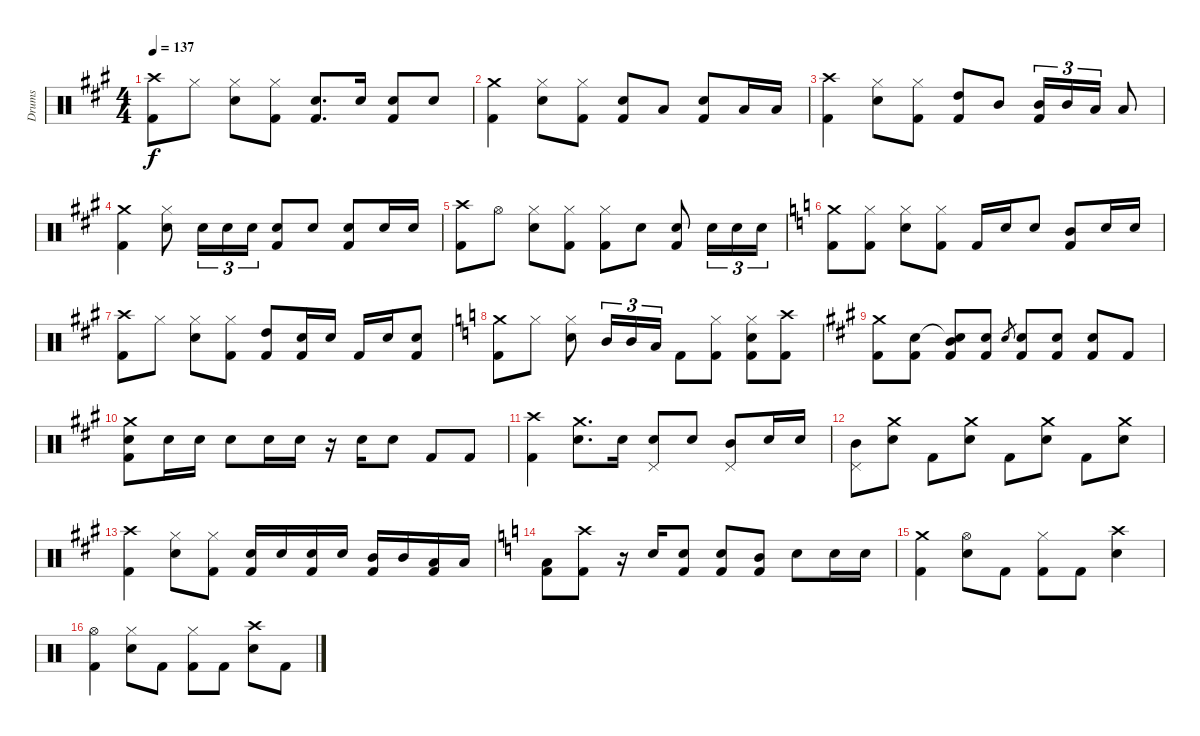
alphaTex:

\track ("Drums" "Drums") {instrument percussion}
\staff {score}
\articulation defaults
\ts (4 4)
\tempo 137
\clef neutral
\ks a
("Crash high (hit)" "Kick (hit) 2").8{dy f} "Hi-Hat (closed)".8 ("Hi-Hat (closed)" "Snare (hit) 2").8 ("Hi-Hat (closed)" "Kick (hit) 2").8 ("Snare (hit) 2" "Kick (hit) 2").8{d} "Snare (hit) 2".16 ("Snare (hit) 2" "Kick (hit) 2").8 "Snare (hit) 2".8 |
("Crash medium (hit)" "Kick (hit) 2").4 ("Hi-Hat (closed)" "Snare (hit) 2").8 ("Hi-Hat (closed)" "Kick (hit) 2").8 ("Snare (hit) 2" "Kick (hit) 2").8 "Low Tom (hit)".8 ("Snare (hit) 2" "Kick (hit) 2").8 "Low Tom (hit)".16 "Low Tom (hit)".16 |
("Crash high (hit)" "Kick (hit) 2").4 ("Hi-Hat (closed)" "Snare (hit) 2").8 ("Hi-Hat (closed)" "Kick (hit) 2").8 ("High Tom (hit)" "Kick (hit) 2").8 "Mid Tom (hit)".8 ("Mid Tom (hit)" "Kick (hit) 2").16{tu (3 2)} "Mid Tom (hit)".16{tu (3 2)} "Low Tom (hit)".16{tu (3 2)} "Low Tom (hit)".8 |
("Crash medium (hit)" "Kick (hit) 2").4 ("Hi-Hat (closed)" "Snare (hit) 2").8 "Snare (hit) 2".16{tu (3 2)} "Snare (hit) 2".16{tu (3 2)} "Snare (hit) 2".16{tu (3 2)} ("Snare (hit) 2" "Kick (hit) 2").8 "Snare (hit) 2".8 ("Snare (hit) 2" "Kick (hit) 2").8 "Snare (hit) 2".16 "Snare (hit) 2".16 |
("Crash high (hit)" "Kick (hit) 2").8 "Hi-Hat (open)".8 ("Hi-Hat (closed)" "Snare (hit) 2").8 ("Hi-Hat (closed)" "Kick (hit) 2").8 ("Hi-Hat (closed)" "Kick (hit) 2").8 "Snare (hit) 2".8 ("Snare (hit) 2" "Kick (hit) 2").8 "Snare (hit) 2".16{tu (3 2)} "Snare (hit) 2".16{tu (3 2)} "Snare (hit) 2".16{tu (3 2)} |
\ks c
("Crash medium (hit)" "Kick (hit) 2").8 ("Hi-Hat (closed)" "Kick (hit) 2").8 ("Hi-Hat (closed)" "Snare (hit) 2").8 ("Hi-Hat (closed)" "Kick (hit) 2").8 "Kick (hit) 2".16 "Snare (hit) 2".16 "Snare (hit) 2".8 ("Mid Tom (hit)" "Kick (hit) 2").8 "Snare (hit) 2".16 "Snare (hit) 2".16 |
\ks a
("Crash high (hit)" "Kick (hit) 2").8 "Hi-Hat (closed)".8 ("Hi-Hat (closed)" "Snare (hit) 2").8 ("Hi-Hat (closed)" "Kick (hit) 2").8 ("High Tom (hit)" "Kick (hit) 2").8 ("Snare (hit) 2" "Kick (hit) 2").16 "Snare (hit) 2".16 "Kick (hit) 2".16 "Snare (hit) 2".16 ("Snare (hit) 2" "Kick (hit) 2").8 |
\ks c
("Crash medium (hit)" "Kick (hit) 2").8 "Hi-Hat (closed)".8 ("Hi-Hat (closed)" "Snare (hit) 2").8 "Mid Tom (hit)".16{tu (3 2)} "Mid Tom (hit)".16{tu (3 2)} "Low Tom (hit)".16{tu (3 2)} "Kick (hit) 2".8 ("Hi-Hat (closed)" "Kick (hit) 2").8 ("Hi-Hat (closed)" "Snare (hit) 2" "Kick (hit) 2").8 ("Crash high (hit)" "Kick (hit) 2").8 |
\ks a
("Crash medium (hit)" "Kick (hit) 2").8 ("Snare (hit) 2" "Kick (hit) 2").8 ("Snare (hit)"{t} "Mid Tom (hit)" "Kick (hit) 2").8 ("Snare (hit) 2" "Kick (hit) 2").8 "Snare (hit) 2".8{gr} ("Snare (hit) 2" "Kick (hit) 2").8 ("Snare (hit) 2" "Kick (hit) 2").8 ("Snare (hit) 2" "Kick (hit) 2").8 "Kick (hit) 2".8 |
("Crash medium (hit)" "Snare (hit) 2" "Kick (hit) 2").8 "Snare (hit) 2".16 "Snare (hit) 2".16 "Snare (hit) 2".8 "Snare (hit) 2".16 "Snare (hit) 2".16 r.16 "Snare (hit) 2".16 "Snare (hit) 2".8 "Kick (hit) 2".8 "Kick (hit) 2".8 |
("Crash high (hit)" "Kick (hit) 2").4 ("Crash medium (hit)" "Snare (hit) 2").8{d} "Snare (hit) 2".16 ("Snare (hit) 2" "Pedal Hi-Hat (hit)").8 "Snare (hit) 2".8 ("Mid Tom (hit)" "Pedal Hi-Hat (hit)").8 "Snare (hit) 2".16 "Snare (hit) 2".16 |
("Mid Tom (hit)" "Pedal Hi-Hat (hit)").8 ("Crash medium (hit)" "Snare (hit) 2").8 "Kick (hit) 2".8 ("Crash medium (hit)" "Snare (hit) 2").8 "Kick (hit) 2".8 ("Crash medium (hit)" "Snare (hit) 2").8 "Kick (hit) 2".8 ("Crash medium (hit)" "Snare (hit) 2").8 |
("Crash high (hit)" "Kick (hit) 2").4 ("Hi-Hat (closed)" "Snare (hit) 2").8 ("Hi-Hat (closed)" "Kick (hit) 2").8 ("Snare (hit) 2" "Kick (hit) 2").16 "Snare (hit) 2".16 ("Snare (hit) 2" "Kick (hit) 2").16 "Snare (hit) 2".16 ("Mid Tom (hit)" "Kick (hit) 2").16 "Mid Tom (hit)".16 ("Low Tom (hit)" "Kick (hit) 2").16 "Low Tom (hit)".16 |
\ks c
("Low Tom (hit)" "Kick (hit) 2").8 ("Crash high (hit)" "Kick (hit) 2").8 r.16 "Snare (hit) 2".16 ("Snare (hit) 2" "Kick (hit) 2").8 ("Snare (hit) 2" "Kick (hit) 2").8 ("Mid Tom (hit)" "Kick (hit) 2").8 "Snare (hit) 2".8 "Snare (hit) 2".16 "Snare (hit) 2".16 |
("Crash medium (hit)" "Kick (hit) 2").4 ("Hi-Hat (open)" "Snare (hit) 2").8 "Kick (hit) 2".8 ("Hi-Hat (closed)" "Kick (hit) 2").8 "Kick (hit) 2".8 ("Crash high (hit)" "Snare (hit) 2").4 |
("Hi-Hat (open)" "Kick (hit) 2").4 ("Hi-Hat (closed)" "Snare (hit) 2").8 "Kick (hit) 2".8 ("Hi-Hat (closed)" "Kick (hit) 2").8 "Kick (hit) 2".8 ("Crash high (hit)" "Snare (hit) 2").8 "Kick (hit) 2".8
